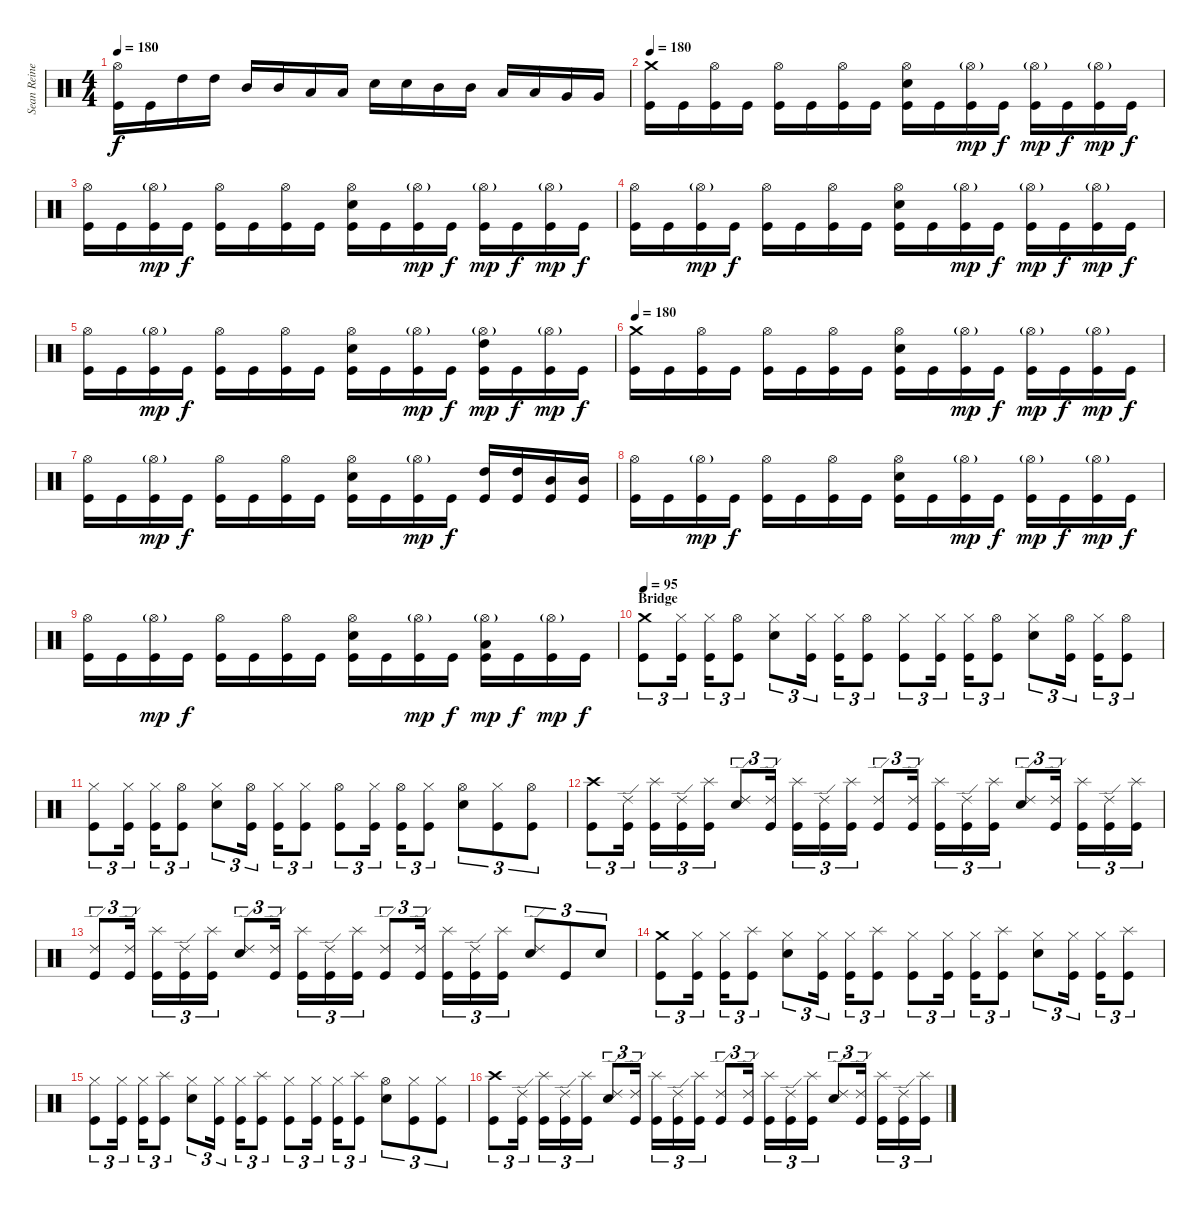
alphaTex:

\track ("Sean Reinert " "Sean Reine") {instrument percussion}
\staff {score}
\articulation defaults
\ts (4 4)
\tempo 180
\clef neutral
\ks c
("Hi-Hat (open)" "Kick (hit)").16{dy f} "Kick (hit)".16 "High Tom (hit)".16 "High Tom (hit)".16 "Mid Tom (hit)".16 "Mid Tom (hit)".16 "Low Tom (hit)".16 "Low Tom (hit)".16 "Electric Snare (hit)".16 "Electric Snare (hit)".16 "Mid Tom (hit)".16 "Mid Tom (hit)".16 "Low Tom (hit)".16 "Low Tom (hit)".16 "Very Low Tom (hit)".16 "Very Low Tom (hit)".16 |
\tempo 180
("Crash medium (hit)" "Kick (hit)").16 "Kick (hit)".16 ("Hi-Hat (open)" "Kick (hit)").16 "Kick (hit)".16 ("Hi-Hat (open)" "Kick (hit)").16 "Kick (hit)".16 ("Hi-Hat (open)" "Kick (hit)").16 "Kick (hit)".16 ("Hi-Hat (open)" "Electric Snare (hit)" "Kick (hit)").16 "Kick (hit)".16 ("Hi-Hat (open)"{g} "Kick (hit)").16{dy mp} "Kick (hit)".16{dy f} ("Hi-Hat (open)"{g} "Kick (hit)").16{dy mp} "Kick (hit)".16{dy f} ("Hi-Hat (open)"{g} "Kick (hit)").16{dy mp} "Kick (hit)".16{dy f} |
("Hi-Hat (open)" "Kick (hit)").16 "Kick (hit)".16 ("Hi-Hat (open)"{g} "Kick (hit)").16{dy mp} "Kick (hit)".16{dy f} ("Hi-Hat (open)" "Kick (hit)").16 "Kick (hit)".16 ("Hi-Hat (open)" "Kick (hit)").16 "Kick (hit)".16 ("Hi-Hat (open)" "Electric Snare (hit)" "Kick (hit)").16 "Kick (hit)".16 ("Hi-Hat (open)"{g} "Kick (hit)").16{dy mp} "Kick (hit)".16{dy f} ("Hi-Hat (open)"{g} "Kick (hit)").16{dy mp} "Kick (hit)".16{dy f} ("Hi-Hat (open)"{g} "Kick (hit)").16{dy mp} "Kick (hit)".16{dy f} |
("Hi-Hat (open)" "Kick (hit)").16 "Kick (hit)".16 ("Hi-Hat (open)"{g} "Kick (hit)").16{dy mp} "Kick (hit)".16{dy f} ("Hi-Hat (open)" "Kick (hit)").16 "Kick (hit)".16 ("Hi-Hat (open)" "Kick (hit)").16 "Kick (hit)".16 ("Hi-Hat (open)" "Electric Snare (hit)" "Kick (hit)").16 "Kick (hit)".16 ("Hi-Hat (open)"{g} "Kick (hit)").16{dy mp} "Kick (hit)".16{dy f} ("Hi-Hat (open)"{g} "Kick (hit)").16{dy mp} "Kick (hit)".16{dy f} ("Hi-Hat (open)"{g} "Kick (hit)").16{dy mp} "Kick (hit)".16{dy f} |
("Hi-Hat (open)" "Kick (hit)").16 "Kick (hit)".16 ("Hi-Hat (open)"{g} "Kick (hit)").16{dy mp} "Kick (hit)".16{dy f} ("Hi-Hat (open)" "Kick (hit)").16 "Kick (hit)".16 ("Hi-Hat (open)" "Kick (hit)").16 "Kick (hit)".16 ("Hi-Hat (open)" "Electric Snare (hit)" "Kick (hit)").16 "Kick (hit)".16 ("Hi-Hat (open)"{g} "Kick (hit)").16{dy mp} "Kick (hit)".16{dy f} ("Hi-Hat (open)"{g} "High Tom (hit)" "Kick (hit)").16{dy mp} "Kick (hit)".16{dy f} ("Hi-Hat (open)"{g} "Kick (hit)").16{dy mp} "Kick (hit)".16{dy f} |
\tempo 180
("Crash medium (hit)" "Kick (hit)").16 "Kick (hit)".16 ("Hi-Hat (open)" "Kick (hit)").16 "Kick (hit)".16 ("Hi-Hat (open)" "Kick (hit)").16 "Kick (hit)".16 ("Hi-Hat (open)" "Kick (hit)").16 "Kick (hit)".16 ("Hi-Hat (open)" "Electric Snare (hit)" "Kick (hit)").16 "Kick (hit)".16 ("Hi-Hat (open)"{g} "Kick (hit)").16{dy mp} "Kick (hit)".16{dy f} ("Hi-Hat (open)"{g} "Kick (hit)").16{dy mp} "Kick (hit)".16{dy f} ("Hi-Hat (open)"{g} "Kick (hit)").16{dy mp} "Kick (hit)".16{dy f} |
("Hi-Hat (open)" "Kick (hit)").16 "Kick (hit)".16 ("Hi-Hat (open)"{g} "Kick (hit)").16{dy mp} "Kick (hit)".16{dy f} ("Hi-Hat (open)" "Kick (hit)").16 "Kick (hit)".16 ("Hi-Hat (open)" "Kick (hit)").16 "Kick (hit)".16 ("Hi-Hat (open)" "Electric Snare (hit)" "Kick (hit)").16 "Kick (hit)".16 ("Hi-Hat (open)"{g} "Kick (hit)").16{dy mp} "Kick (hit)".16{dy f} ("High Tom (hit)" "Kick (hit)").16 ("High Tom (hit)" "Kick (hit)").16 ("Mid Tom (hit)" "Kick (hit)").16 ("Mid Tom (hit)" "Kick (hit)").16 |
("Hi-Hat (open)" "Kick (hit)").16 "Kick (hit)".16 ("Hi-Hat (open)"{g} "Kick (hit)").16{dy mp} "Kick (hit)".16{dy f} ("Hi-Hat (open)" "Kick (hit)").16 "Kick (hit)".16 ("Hi-Hat (open)" "Kick (hit)").16 "Kick (hit)".16 ("Hi-Hat (open)" "Electric Snare (hit)" "Kick (hit)").16 "Kick (hit)".16 ("Hi-Hat (open)"{g} "Kick (hit)").16{dy mp} "Kick (hit)".16{dy f} ("Hi-Hat (open)"{g} "Kick (hit)").16{dy mp} "Kick (hit)".16{dy f} ("Hi-Hat (open)"{g} "Kick (hit)").16{dy mp} "Kick (hit)".16{dy f} |
("Hi-Hat (open)" "Kick (hit)").16 "Kick (hit)".16 ("Hi-Hat (open)"{g} "Kick (hit)").16{dy mp} "Kick (hit)".16{dy f} ("Hi-Hat (open)" "Kick (hit)").16 "Kick (hit)".16 ("Hi-Hat (open)" "Kick (hit)").16 "Kick (hit)".16 ("Hi-Hat (open)" "Electric Snare (hit)" "Kick (hit)").16 "Kick (hit)".16 ("Hi-Hat (open)"{g} "Kick (hit)").16{dy mp} "Kick (hit)".16{dy f} ("Hi-Hat (open)"{g} "Low Tom (hit)" "Kick (hit)").16{dy mp} "Kick (hit)".16{dy f} ("Hi-Hat (open)"{g} "Kick (hit)").16{dy mp} "Kick (hit)".16{dy f} |
\section ("" "Bridge")
\tempo 95
("Crash medium (hit)" "Kick (hit)").8{tu (3 2)} ("Hi-Hat (closed)" "Kick (hit)").16{tu (3 2)} ("Hi-Hat (closed)" "Kick (hit)").16{tu (3 2)} ("Hi-Hat (open)" "Kick (hit)").8{tu (3 2)} ("Hi-Hat (closed)" "Electric Snare (hit)").8{tu (3 2)} ("Hi-Hat (closed)" "Kick (hit)").16{tu (3 2)} ("Hi-Hat (closed)" "Kick (hit)").16{tu (3 2)} ("Hi-Hat (open)" "Kick (hit)").8{tu (3 2)} ("Hi-Hat (closed)" "Kick (hit)").8{tu (3 2)} ("Hi-Hat (closed)" "Kick (hit)").16{tu (3 2)} ("Hi-Hat (closed)" "Kick (hit)").16{tu (3 2)} ("Hi-Hat (open)" "Kick (hit)").8{tu (3 2)} ("Hi-Hat (closed)" "Electric Snare (hit)").8{tu (3 2)} ("Hi-Hat (open)" "Kick (hit)").16{tu (3 2)} ("Hi-Hat (closed)" "Kick (hit)").16{tu (3 2)} ("Hi-Hat (open)" "Kick (hit)").8{tu (3 2)} |
("Hi-Hat (closed)" "Kick (hit)").8{tu (3 2)} ("Hi-Hat (closed)" "Kick (hit)").16{tu (3 2)} ("Hi-Hat (closed)" "Kick (hit)").16{tu (3 2)} ("Hi-Hat (open)" "Kick (hit)").8{tu (3 2)} ("Hi-Hat (closed)" "Electric Snare (hit)").8{tu (3 2)} ("Hi-Hat (open)" "Kick (hit)").16{tu (3 2)} ("Hi-Hat (closed)" "Kick (hit)").16{tu (3 2)} ("Hi-Hat (closed)" "Kick (hit)").8{tu (3 2)} ("Hi-Hat (open)" "Kick (hit)").8{tu (3 2)} ("Hi-Hat (closed)" "Kick (hit)").16{tu (3 2)} ("Hi-Hat (open)" "Kick (hit)").16{tu (3 2)} ("Hi-Hat (closed)" "Kick (hit)").8{tu (3 2)} ("Hi-Hat (open)" "Electric Snare (hit)").8{tu (3 2)} ("Hi-Hat (closed)" "Kick (hit)").8{tu (3 2)} ("Hi-Hat (open)" "Kick (hit)").8{tu (3 2)} |
("Crash high (hit)" "Kick (hit)").8{tu (3 2)} ("Ride (edge) 2" "Kick (hit)").16{tu (3 2)} ("Splash (hit)" "Kick (hit)").16{tu (3 2)} ("Ride (edge) 2" "Kick (hit)").16{tu (3 2)} ("Splash (hit)" "Kick (hit)").16{tu (3 2)} ("Ride (edge) 2" "Electric Snare (hit)").8{tu (3 2)} ("Ride (edge) 2" "Kick (hit)").16{tu (3 2)} ("Splash (hit)" "Kick (hit)").16{tu (3 2)} ("Ride (edge) 2" "Kick (hit)").16{tu (3 2)} ("Splash (hit)" "Kick (hit)").16{tu (3 2)} ("Ride (edge) 2" "Kick (hit)").8{tu (3 2)} ("Ride (edge) 2" "Kick (hit)").16{tu (3 2)} ("Splash (hit)" "Kick (hit)").16{tu (3 2)} ("Ride (edge) 2" "Kick (hit)").16{tu (3 2)} ("Splash (hit)" "Kick (hit)").16{tu (3 2)} ("Ride (edge) 2" "Electric Snare (hit)").8{tu (3 2)} ("Ride (edge) 2" "Kick (hit)").16{tu (3 2)} ("Splash (hit)" "Kick (hit)").16{tu (3 2)} ("Ride (edge) 2" "Kick (hit)").16{tu (3 2)} ("Splash (hit)" "Kick (hit)").16{tu (3 2)} |
("Ride (edge) 2" "Kick (hit)").8{tu (3 2)} ("Ride (edge) 2" "Kick (hit)").16{tu (3 2)} ("Splash (hit)" "Kick (hit)").16{tu (3 2)} ("Ride (edge) 2" "Kick (hit)").16{tu (3 2)} ("Splash (hit)" "Kick (hit)").16{tu (3 2)} ("Ride (edge) 2" "Electric Snare (hit)").8{tu (3 2)} ("Ride (edge) 2" "Kick (hit)").16{tu (3 2)} ("Splash (hit)" "Kick (hit)").16{tu (3 2)} ("Ride (edge) 2" "Kick (hit)").16{tu (3 2)} ("Splash (hit)" "Kick (hit)").16{tu (3 2)} ("Ride (edge) 2" "Kick (hit)").8{tu (3 2)} ("Ride (edge) 2" "Kick (hit)").16{tu (3 2)} ("Splash (hit)" "Kick (hit)").16{tu (3 2)} ("Ride (edge) 2" "Kick (hit)").16{tu (3 2)} ("Splash (hit)" "Kick (hit)").16{tu (3 2)} ("Ride (edge) 2" "Electric Snare (hit)").8{tu (3 2)} "Kick (hit)".8{tu (3 2)} "Electric Snare (hit)".8{tu (3 2)} |
("Crash medium (hit)" "Kick (hit)").8{tu (3 2)} ("Hi-Hat (closed)" "Kick (hit)").16{tu (3 2)} ("Hi-Hat (closed)" "Kick (hit)").16{tu (3 2)} ("Splash (hit)" "Kick (hit)").8{tu (3 2)} ("Hi-Hat (closed)" "Electric Snare (hit)").8{tu (3 2)} ("Hi-Hat (closed)" "Kick (hit)").16{tu (3 2)} ("Hi-Hat (closed)" "Kick (hit)").16{tu (3 2)} ("Splash (hit)" "Kick (hit)").8{tu (3 2)} ("Hi-Hat (closed)" "Kick (hit)").8{tu (3 2)} ("Hi-Hat (closed)" "Kick (hit)").16{tu (3 2)} ("Hi-Hat (closed)" "Kick (hit)").16{tu (3 2)} ("Splash (hit)" "Kick (hit)").8{tu (3 2)} ("Hi-Hat (closed)" "Electric Snare (hit)").8{tu (3 2)} ("Hi-Hat (closed)" "Kick (hit)").16{tu (3 2)} ("Hi-Hat (closed)" "Kick (hit)").16{tu (3 2)} ("Splash (hit)" "Kick (hit)").8{tu (3 2)} |
("Hi-Hat (closed)" "Kick (hit)").8{tu (3 2)} ("Hi-Hat (closed)" "Kick (hit)").16{tu (3 2)} ("Hi-Hat (closed)" "Kick (hit)").16{tu (3 2)} ("Splash (hit)" "Kick (hit)").8{tu (3 2)} ("Hi-Hat (closed)" "Electric Snare (hit)").8{tu (3 2)} ("Hi-Hat (closed)" "Kick (hit)").16{tu (3 2)} ("Hi-Hat (closed)" "Kick (hit)").16{tu (3 2)} ("Splash (hit)" "Kick (hit)").8{tu (3 2)} ("Hi-Hat (closed)" "Kick (hit)").8{tu (3 2)} ("Hi-Hat (closed)" "Kick (hit)").16{tu (3 2)} ("Hi-Hat (closed)" "Kick (hit)").16{tu (3 2)} ("Splash (hit)" "Kick (hit)").8{tu (3 2)} ("Hi-Hat (open)" "Electric Snare (hit)").8{tu (3 2)} ("Hi-Hat (closed)" "Kick (hit)").8{tu (3 2)} ("Hi-Hat (closed)" "Kick (hit)").8{tu (3 2)} |
("Crash high (hit)" "Kick (hit)").8{tu (3 2)} ("Ride (edge) 2" "Kick (hit)").16{tu (3 2)} ("Splash (hit)" "Kick (hit)").16{tu (3 2)} ("Ride (edge) 2" "Kick (hit)").16{tu (3 2)} ("Splash (hit)" "Kick (hit)").16{tu (3 2)} ("Ride (edge) 2" "Electric Snare (hit)").8{tu (3 2)} ("Ride (edge) 2" "Kick (hit)").16{tu (3 2)} ("Splash (hit)" "Kick (hit)").16{tu (3 2)} ("Ride (edge) 2" "Kick (hit)").16{tu (3 2)} ("Splash (hit)" "Kick (hit)").16{tu (3 2)} ("Ride (edge) 2" "Kick (hit)").8{tu (3 2)} ("Ride (edge) 2" "Kick (hit)").16{tu (3 2)} ("Splash (hit)" "Kick (hit)").16{tu (3 2)} ("Ride (edge) 2" "Kick (hit)").16{tu (3 2)} ("Splash (hit)" "Kick (hit)").16{tu (3 2)} ("Ride (edge) 2" "Electric Snare (hit)").8{tu (3 2)} ("Ride (edge) 2" "Kick (hit)").16{tu (3 2)} ("Splash (hit)" "Kick (hit)").16{tu (3 2)} ("Ride (edge) 2" "Kick (hit)").16{tu (3 2)} ("Splash (hit)" "Kick (hit)").16{tu (3 2)}
